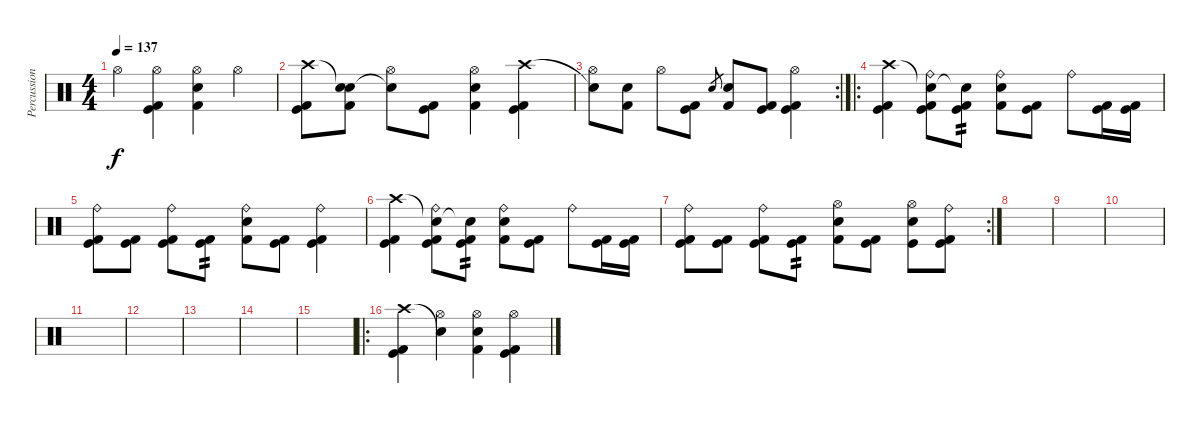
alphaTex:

\track ("Percussion" "Percussion") {instrument percussion}
\staff {score}
\articulation defaults
\ts (4 4)
\tempo 137
\clef neutral
\ks c "Hi-Hat (open)".4{dy f}
("Hi-Hat (open)" "Kick (hit) 2" "Kick (hit)").4 ("Hi-Hat (open)" "Snare (hit) 2" "Kick (hit) 2").4 "Hi-Hat (open)".4 |
("Crash high (hit)" "Kick (hit) 2" "Kick (hit)").8 ("Snare (hit)"{t} "Snare (hit) 2" "Kick (hit) 2").8 ("Snare (hit)"{t} "Hi-Hat (open)").8 ("Kick (hit) 2" "Kick (hit)").8 ("Hi-Hat (open)" "Snare (hit) 2" "Kick (hit) 2").4 ("Crash high (hit)" "Kick (hit) 2" "Kick (hit)").4 |
\rc 2
("Snare (hit)"{t} "Hi-Hat (open)").8 ("Snare (hit) 2" "Kick (hit) 2").8 "Hi-Hat (open)".8 ("Kick (hit) 2" "Kick (hit)").8 "Snare (hit) 2".8{gr} ("Snare (hit) 2" "Kick (hit) 2").8 ("Kick (hit) 2" "Kick (hit)").8 ("Hi-Hat (open)" "Kick (hit) 2" "Kick (hit)").4 |
\ro
("Crash high (hit)" "Kick (hit) 2" "Kick (hit)").4 ("Snare (hit)"{t} "Ride (bell)" "Kick (hit) 2" "Kick (hit)").8 ("Snare (hit)"{t} "Kick (hit) 2" "Kick (hit)").8{tp 2} ("Ride (bell)" "Snare (hit) 2" "Kick (hit) 2").8 ("Kick (hit) 2" "Kick (hit)").8 "Ride (bell)".8 ("Kick (hit) 2" "Kick (hit)").16 ("Kick (hit) 2" "Kick (hit)").16 |
("Ride (bell)" "Kick (hit) 2" "Kick (hit)").8 ("Kick (hit) 2" "Kick (hit)").8 ("Ride (bell)" "Kick (hit)" "Kick (hit) 2").8 ("Kick (hit) 2" "Kick (hit)").8{tp 2} ("Ride (bell)" "Snare (hit) 2" "Kick (hit) 2").8 ("Kick (hit) 2" "Kick (hit)").8 ("Ride (bell)" "Kick (hit) 2" "Kick (hit)").4 |
("Crash high (hit)" "Kick (hit) 2" "Kick (hit)").4 ("Snare (hit)"{t} "Ride (bell)" "Kick (hit) 2" "Kick (hit)").8 ("Snare (hit)"{t} "Kick (hit) 2" "Kick (hit)").8{tp 2} ("Ride (bell)" "Snare (hit) 2" "Kick (hit) 2").8 ("Kick (hit) 2" "Kick (hit)").8 "Ride (bell)".8 ("Kick (hit) 2" "Kick (hit)").16 ("Kick (hit) 2" "Kick (hit)").16 |
\rc 2
("Ride (bell)" "Kick (hit) 2" "Kick (hit)").8 ("Kick (hit) 2" "Kick (hit)").8 ("Ride (bell)" "Kick (hit)" "Kick (hit) 2").8 ("Kick (hit) 2" "Kick (hit)").8{tp 2} ("Hi-Hat (open)" "Snare (hit) 2" "Kick (hit) 2").8 ("Kick (hit) 2" "Kick (hit)").8 ("Hi-Hat (open)" "Snare (hit) 2" "Kick (hit)").8 ("Ride (bell)" "Kick (hit) 2" "Kick (hit)").8 |
|
|
|
|
|
|
|
|
\ro
("Crash high (hit)" "Kick (hit) 2" "Kick (hit)").4 ("Snare (hit)"{t} "Hi-Hat (open)").4 ("Hi-Hat (open)" "Snare (hit) 2" "Kick (hit) 2").4 ("Hi-Hat (open)" "Kick (hit) 2" "Kick (hit)").4
